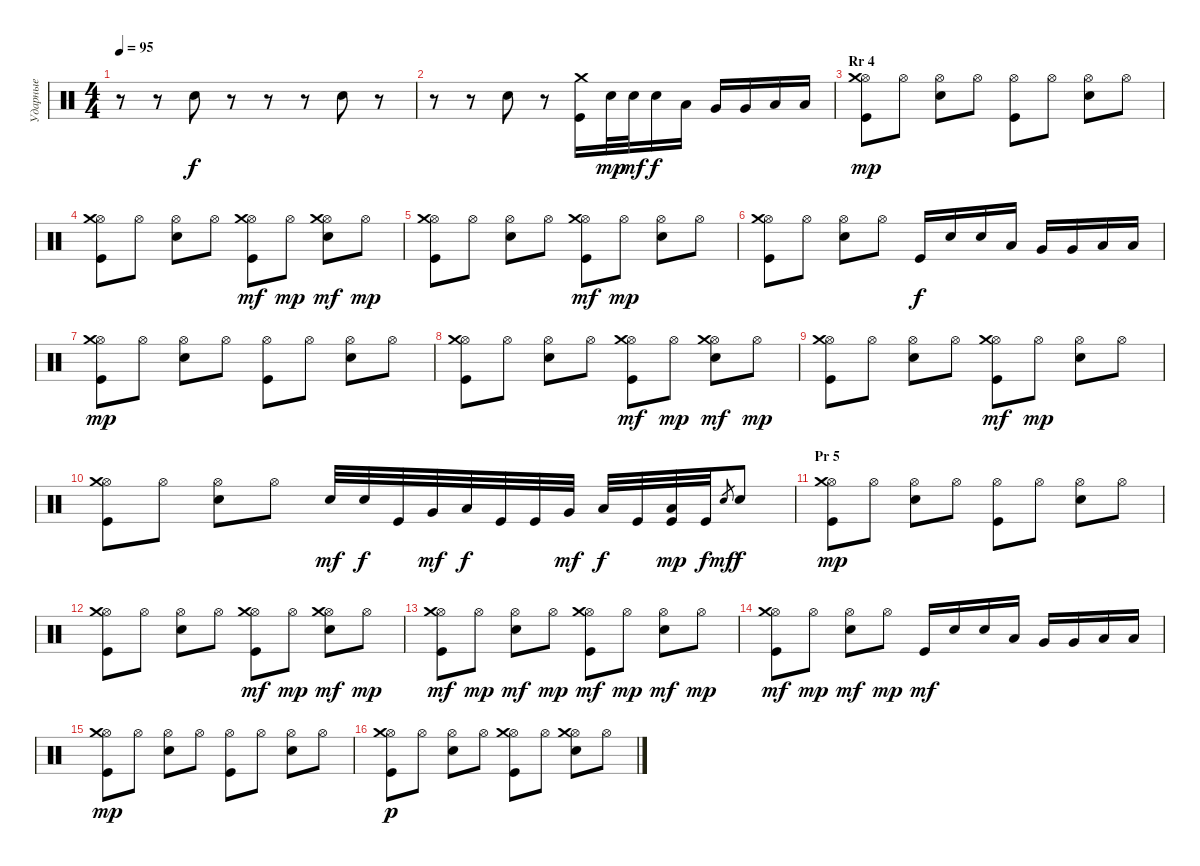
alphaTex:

\track ("Ударные" "Ударные") {instrument percussion}
\staff {score}
\articulation defaults
\ts (4 4)
\tempo 95
\clef neutral
\ks c
r.8{dy f} r.8 "Snare (hit) 2".8 r.8 r.8 r.8 "Snare (hit) 2".8 r.8 |
r.8 r.8 "Snare (hit) 2".8 r.8 ("Crash medium (hit)" "Kick (hit)").16 "Snare (hit) 2".32{dy mp} "Snare (hit) 2".32{dy mf} "Snare (hit) 2".16{dy f} "Low Tom (hit)".16 "Very Low Tom (hit)".16 "Very Low Tom (hit)".16 "Low Floor Tom (hit)".16 "Low Floor Tom (hit)".16 |
\section ("" "Rr 4")
("Hi-Hat (open)" "Crash medium (hit)" "Kick (hit)").8{dy mp} "Hi-Hat (open)".8 ("Hi-Hat (open)" "Snare (hit) 2").8 "Hi-Hat (open)".8 ("Hi-Hat (open)" "Kick (hit)").8 "Hi-Hat (open)".8 ("Hi-Hat (open)" "Snare (hit) 2").8 "Hi-Hat (open)".8 |
("Hi-Hat (open)" "Crash medium (hit)" "Kick (hit)").8 "Hi-Hat (open)".8 ("Hi-Hat (open)" "Snare (hit) 2").8 "Hi-Hat (open)".8 ("Hi-Hat (open)" "Crash medium (hit)" "Kick (hit)").8{dy mf} "Hi-Hat (open)".8{dy mp} ("Hi-Hat (open)" "Crash medium (hit)" "Snare (hit) 2").8{dy mf} "Hi-Hat (open)".8{dy mp} |
("Hi-Hat (open)" "Crash medium (hit)" "Kick (hit)").8 "Hi-Hat (open)".8 ("Hi-Hat (open)" "Snare (hit) 2").8 "Hi-Hat (open)".8 ("Hi-Hat (open)" "Crash medium (hit)" "Kick (hit)").8{dy mf} "Hi-Hat (open)".8{dy mp} ("Hi-Hat (open)" "Snare (hit) 2").8 "Hi-Hat (open)".8 |
("Hi-Hat (open)" "Crash medium (hit)" "Kick (hit)").8 "Hi-Hat (open)".8 ("Hi-Hat (open)" "Snare (hit) 2").8 "Hi-Hat (open)".8 "Kick (hit)".16{dy f} "Snare (hit) 2".16 "Snare (hit) 2".16 "Low Tom (hit)".16 "Very Low Tom (hit)".16 "Very Low Tom (hit)".16 "Low Floor Tom (hit)".16 "Low Floor Tom (hit)".16 |
("Hi-Hat (open)" "Crash medium (hit)" "Kick (hit)").8{dy mp} "Hi-Hat (open)".8 ("Hi-Hat (open)" "Snare (hit) 2").8 "Hi-Hat (open)".8 ("Hi-Hat (open)" "Kick (hit)").8 "Hi-Hat (open)".8 ("Hi-Hat (open)" "Snare (hit) 2").8 "Hi-Hat (open)".8 |
("Hi-Hat (open)" "Crash medium (hit)" "Kick (hit)").8 "Hi-Hat (open)".8 ("Hi-Hat (open)" "Snare (hit) 2").8 "Hi-Hat (open)".8 ("Hi-Hat (open)" "Crash medium (hit)" "Kick (hit)").8{dy mf} "Hi-Hat (open)".8{dy mp} ("Hi-Hat (open)" "Crash medium (hit)" "Snare (hit) 2").8{dy mf} "Hi-Hat (open)".8{dy mp} |
("Hi-Hat (open)" "Crash medium (hit)" "Kick (hit)").8 "Hi-Hat (open)".8 ("Hi-Hat (open)" "Snare (hit) 2").8 "Hi-Hat (open)".8 ("Hi-Hat (open)" "Crash medium (hit)" "Kick (hit)").8{dy mf} "Hi-Hat (open)".8{dy mp} ("Hi-Hat (open)" "Snare (hit) 2").8 "Hi-Hat (open)".8 |
("Hi-Hat (open)" "Crash medium (hit)" "Kick (hit)").8 "Hi-Hat (open)".8 ("Hi-Hat (open)" "Snare (hit) 2").8 "Hi-Hat (open)".8 "Snare (hit) 2".32{dy mf} "Snare (hit) 2".32{dy f} "Kick (hit)".32 "Very Low Tom (hit)".32{dy mf} "Low Floor Tom (hit)".32{dy f} "Kick (hit)".32 "Kick (hit)".32 "Very Low Tom (hit)".32{dy mf} "Low Floor Tom (hit)".32{dy f} "Kick (hit)".32 ("Low Floor Tom (hit)" "Kick (hit)").32{dy mp} "Kick (hit)".32{dy f} "Snare (hit) 2".8{gr dy mf} "Snare (hit) 2".8{dy f} |
\section ("" "Pr 5")
("Hi-Hat (open)" "Crash medium (hit)" "Kick (hit)").8{dy mp} "Hi-Hat (open)".8 ("Hi-Hat (open)" "Snare (hit) 2").8 "Hi-Hat (open)".8 ("Hi-Hat (open)" "Kick (hit)").8 "Hi-Hat (open)".8 ("Hi-Hat (open)" "Snare (hit) 2").8 "Hi-Hat (open)".8 |
("Hi-Hat (open)" "Crash medium (hit)" "Kick (hit)").8 "Hi-Hat (open)".8 ("Hi-Hat (open)" "Snare (hit) 2").8 "Hi-Hat (open)".8 ("Hi-Hat (open)" "Crash medium (hit)" "Kick (hit)").8{dy mf} "Hi-Hat (open)".8{dy mp} ("Hi-Hat (open)" "Crash medium (hit)" "Snare (hit) 2").8{dy mf} "Hi-Hat (open)".8{dy mp} |
("Hi-Hat (open)" "Crash medium (hit)" "Kick (hit)").8{dy mf} "Hi-Hat (open)".8{dy mp} ("Hi-Hat (open)" "Snare (hit) 2").8{dy mf} "Hi-Hat (open)".8{dy mp} ("Hi-Hat (open)" "Crash medium (hit)" "Kick (hit)").8{dy mf} "Hi-Hat (open)".8{dy mp} ("Hi-Hat (open)" "Snare (hit) 2").8{dy mf} "Hi-Hat (open)".8{dy mp} |
("Hi-Hat (open)" "Crash medium (hit)" "Kick (hit)").8{dy mf} "Hi-Hat (open)".8{dy mp} ("Hi-Hat (open)" "Snare (hit) 2").8{dy mf} "Hi-Hat (open)".8{dy mp} "Kick (hit)".16{dy mf} "Snare (hit) 2".16 "Snare (hit) 2".16 "Low Tom (hit)".16 "Very Low Tom (hit)".16 "Very Low Tom (hit)".16 "Low Floor Tom (hit)".16 "Low Floor Tom (hit)".16 |
("Hi-Hat (open)" "Crash medium (hit)" "Kick (hit)").8{dy mp} "Hi-Hat (open)".8 ("Hi-Hat (open)" "Snare (hit) 2").8 "Hi-Hat (open)".8 ("Hi-Hat (open)" "Kick (hit)").8 "Hi-Hat (open)".8 ("Hi-Hat (open)" "Snare (hit) 2").8 "Hi-Hat (open)".8 |
("Hi-Hat (open)" "Crash medium (hit)" "Kick (hit)").8{dy p} "Hi-Hat (open)".8 ("Hi-Hat (open)" "Snare (hit) 2").8 "Hi-Hat (open)".8 ("Hi-Hat (open)" "Crash medium (hit)" "Kick (hit)").8 "Hi-Hat (open)".8 ("Hi-Hat (open)" "Crash medium (hit)" "Snare (hit) 2").8 "Hi-Hat (open)".8
